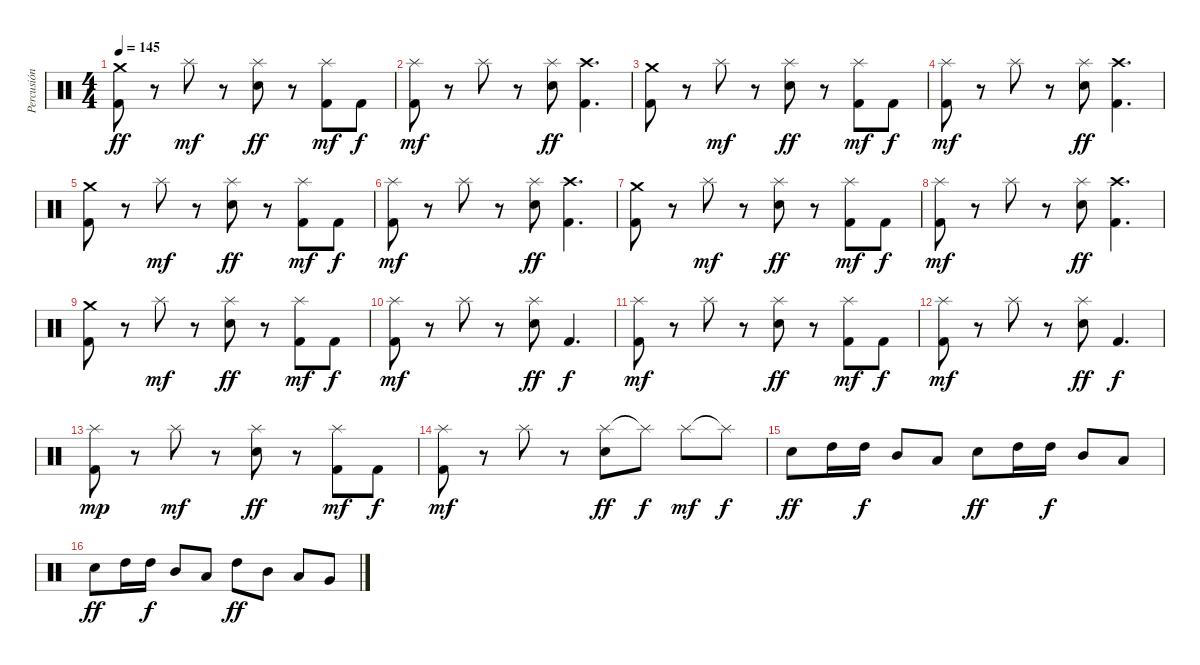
\track ("Percusión" "Percusión") {instrument percussion}
\staff {score}
\articulation defaults
\ts (4 4)
\tempo 145
\clef neutral
\ks c
("Crash medium (hit)" "Kick (hit) 2").8{dy ff} r.8 "Splash (hit)".8{dy mf} r.8 ("Splash (hit)" "Electric Snare (hit)").8{dy ff} r.8 ("Splash (hit)" "Kick (hit) 2").8{dy mf} "Kick (hit) 2".8{dy f} |
("Splash (hit)" "Kick (hit) 2").8{dy mf} r.8 "Splash (hit)".8 r.8 ("Splash (hit)" "Electric Snare (hit)").8{dy ff} ("Crash high (hit)" "Kick (hit) 2").4{d} |
("Crash medium (hit)" "Kick (hit) 2").8 r.8 "Splash (hit)".8{dy mf} r.8 ("Splash (hit)" "Electric Snare (hit)").8{dy ff} r.8 ("Splash (hit)" "Kick (hit) 2").8{dy mf} "Kick (hit) 2".8{dy f} |
("Splash (hit)" "Kick (hit) 2").8{dy mf} r.8 "Splash (hit)".8 r.8 ("Splash (hit)" "Electric Snare (hit)").8{dy ff} ("Crash high (hit)" "Kick (hit) 2").4{d} |
("Crash medium (hit)" "Kick (hit) 2").8 r.8 "Splash (hit)".8{dy mf} r.8 ("Splash (hit)" "Electric Snare (hit)").8{dy ff} r.8 ("Splash (hit)" "Kick (hit) 2").8{dy mf} "Kick (hit) 2".8{dy f} |
("Splash (hit)" "Kick (hit) 2").8{dy mf} r.8 "Splash (hit)".8 r.8 ("Splash (hit)" "Electric Snare (hit)").8{dy ff} ("Crash high (hit)" "Kick (hit) 2").4{d} |
("Crash medium (hit)" "Kick (hit) 2").8 r.8 "Splash (hit)".8{dy mf} r.8 ("Splash (hit)" "Electric Snare (hit)").8{dy ff} r.8 ("Splash (hit)" "Kick (hit) 2").8{dy mf} "Kick (hit) 2".8{dy f} |
("Splash (hit)" "Kick (hit) 2").8{dy mf} r.8 "Splash (hit)".8 r.8 ("Splash (hit)" "Electric Snare (hit)").8{dy ff} ("Crash high (hit)" "Kick (hit) 2").4{d} |
("Crash medium (hit)" "Kick (hit) 2").8 r.8 "Splash (hit)".8{dy mf} r.8 ("Splash (hit)" "Electric Snare (hit)").8{dy ff} r.8 ("Splash (hit)" "Kick (hit) 2").8{dy mf} "Kick (hit) 2".8{dy f} |
("Splash (hit)" "Kick (hit) 2").8{dy mf} r.8 "Splash (hit)".8 r.8 ("Splash (hit)" "Electric Snare (hit)").8{dy ff} "Kick (hit) 2".4{d dy f} |
("Splash (hit)" "Kick (hit) 2").8{dy mf} r.8 "Splash (hit)".8 r.8 ("Splash (hit)" "Electric Snare (hit)").8{dy ff} r.8 ("Splash (hit)" "Kick (hit) 2").8{dy mf} "Kick (hit) 2".8{dy f} |
("Splash (hit)" "Kick (hit) 2").8{dy mf} r.8 "Splash (hit)".8 r.8 ("Splash (hit)" "Electric Snare (hit)").8{dy ff} "Kick (hit) 2".4{d dy f} |
("Splash (hit)" "Kick (hit) 2").8{dy mp} r.8 "Splash (hit)".8{dy mf} r.8 ("Splash (hit)" "Electric Snare (hit)").8{dy ff} r.8 ("Splash (hit)" "Kick (hit) 2").8{dy mf} "Kick (hit) 2".8{dy f} |
("Splash (hit)" "Kick (hit) 2").8{dy mf} r.8 "Splash (hit)".8 r.8 ("Splash (hit)" "Electric Snare (hit)").8{dy ff} "Splash (hit)"{t}.8{dy f} "Splash (hit)".8{dy mf} "Splash (hit)"{t}.8{dy f} |
"Electric Snare (hit)".8{dy ff} "High Tom (hit)".16 "High Tom (hit)".16{dy f} "Mid Tom (hit)".8 "Low Tom (hit)".8 "Electric Snare (hit)".8{dy ff} "High Tom (hit)".16 "High Tom (hit)".16{dy f} "Mid Tom (hit)".8 "Low Tom (hit)".8 |
"Electric Snare (hit)".8{dy ff} "High Tom (hit)".16 "High Tom (hit)".16{dy f} "Mid Tom (hit)".8 "Low Tom (hit)".8 "High Tom (hit)".8{dy ff} "Mid Tom (hit)".8 "Low Tom (hit)".8 "Very Low Tom (hit)".8
